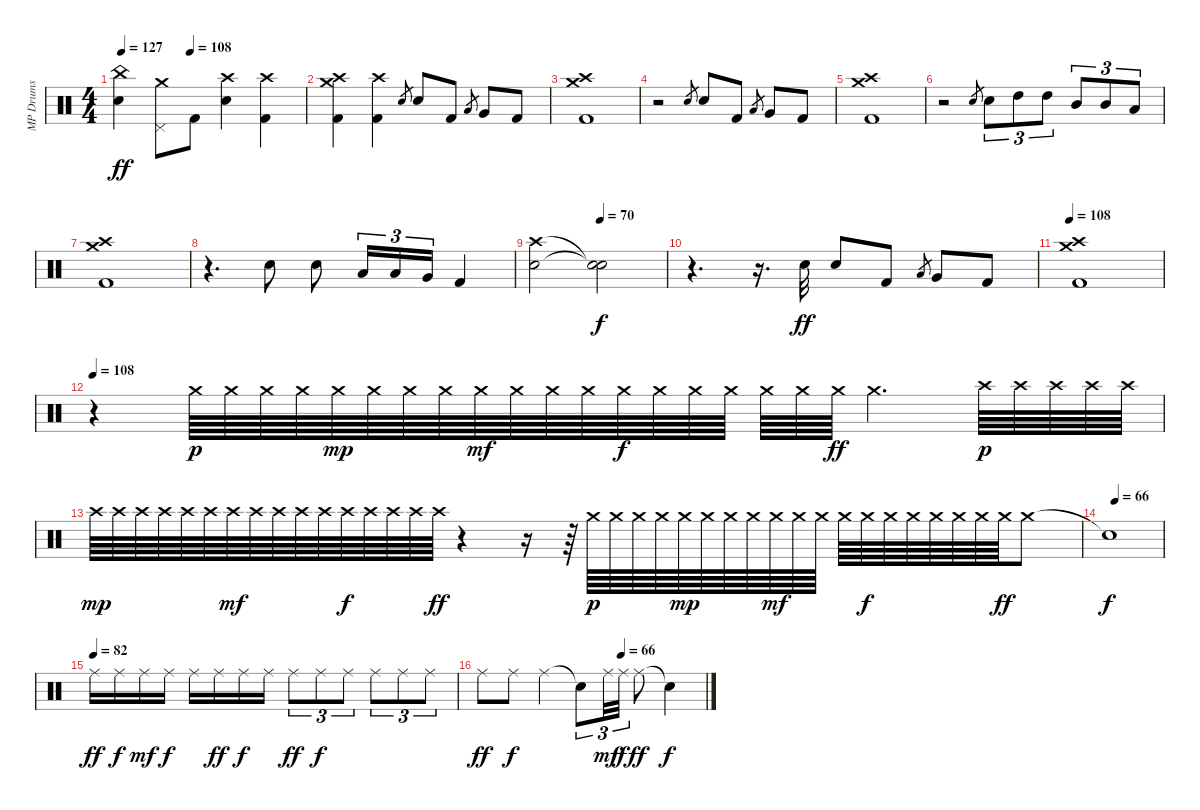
\track ("MP Drums" "MP Drums") {instrument percussion}
\staff {score}
\articulation defaults
\ts (4 4)
\tempo 127
\tempo (108 0.375)
\clef neutral
\ks c
("China (hit)" "Snare (hit) 2").4{dy ff} ("Crash medium (hit)" "Pedal Hi-Hat (hit)").8 "Kick (hit) 2".8 ("Crash high (hit)" "Snare (hit) 2").4 ("Crash high (hit)" "Kick (hit) 2").4 |
("Crash high (hit)" "Crash medium (hit)" "Kick (hit) 2").4 ("Crash high (hit)" "Kick (hit) 2").4 "Snare (hit) 2".8{gr} "Snare (hit) 2".8 "Kick (hit) 2".8 "Low Tom (hit)".8{gr} "Very Low Tom (hit)".8 "Kick (hit) 2".8 |
("Crash high (hit)" "Crash medium (hit)" "Kick (hit) 2").1 |
r.2 "Snare (hit) 2".8{gr} "Snare (hit) 2".8 "Kick (hit) 2".8 "Low Tom (hit)".8{gr} "Very Low Tom (hit)".8 "Kick (hit) 2".8 |
("Crash high (hit)" "Crash medium (hit)" "Kick (hit) 2").1 |
r.2 "Snare (hit) 2".8{gr} "Snare (hit) 2".8{tu (3 2)} "High Tom (hit)".8{tu (3 2)} "High Tom (hit)".8{tu (3 2)} "Mid Tom (hit)".8{tu (3 2)} "Mid Tom (hit)".8{tu (3 2)} "Low Tom (hit)".8{tu (3 2)} |
("Crash high (hit)" "Crash medium (hit)" "Kick (hit) 2").1 |
r.4{d} "Snare (hit) 2".8 "Snare (hit) 2".8 "Low Tom (hit)".16{tu (3 2)} "Low Tom (hit)".16{tu (3 2)} "Very Low Tom (hit)".16{tu (3 2)} "Kick (hit) 2".4 |
\tempo (70 0.5)
("Crash high (hit)" "Snare (hit) 2").2 ("Snare (hit)"{t} "Snare (hit)"{t}).2{dy f} |
r.4{d} r.16{d} "Snare (hit) 2".32{dy ff} "Snare (hit) 2".8 "Kick (hit) 2".8 "Low Tom (hit)".8{gr} "Very Low Tom (hit)".8 "Kick (hit) 2".8 |
\tempo 108
("Crash high (hit)" "Crash medium (hit)" "Kick (hit) 2").1 |
\tempo 108
r.4 "Crash medium (hit)".64{dy p} "Crash medium (hit)".64 "Crash medium (hit)".64 "Crash medium (hit)".64 "Crash medium (hit)".64{dy mp} "Crash medium (hit)".64 "Crash medium (hit)".64 "Crash medium (hit)".64 "Crash medium (hit)".64{dy mf} "Crash medium (hit)".64 "Crash medium (hit)".64 "Crash medium (hit)".64 "Crash medium (hit)".64{dy f} "Crash medium (hit)".64 "Crash medium (hit)".64 "Crash medium (hit)".64 "Crash medium (hit)".64 "Crash medium (hit)".64 "Crash medium (hit)".64{dy ff} "Crash medium (hit)".4{d} "Crash high (hit)".64{dy p} "Crash high (hit)".64 "Crash high (hit)".64 "Crash high (hit)".64 "Crash high (hit)".64 |
"Crash high (hit)".64{dy mp} "Crash high (hit)".64 "Crash high (hit)".64 "Crash high (hit)".64 "Crash high (hit)".64 "Crash high (hit)".64 "Crash high (hit)".64{dy mf} "Crash high (hit)".64 "Crash high (hit)".64 "Crash high (hit)".64 "Crash high (hit)".64 "Crash high (hit)".64{dy f} "Crash high (hit)".64 "Crash high (hit)".64 "Crash high (hit)".64 "Crash high (hit)".64{dy ff} r.4 r.16 r.64 "Crash medium (hit)".64{dy p} "Crash medium (hit)".64 "Crash medium (hit)".64 "Crash medium (hit)".64 "Crash medium (hit)".64{dy mp} "Crash medium (hit)".64 "Crash medium (hit)".64 "Crash medium (hit)".64 "Crash medium (hit)".64{dy mf} "Crash medium (hit)".64 "Crash medium (hit)".64 "Crash medium (hit)".64 "Crash medium (hit)".64{dy f} "Crash medium (hit)".64 "Crash medium (hit)".64 "Crash medium (hit)".64 "Crash medium (hit)".64 "Crash medium (hit)".64 "Crash medium (hit)".64{dy ff} "Crash medium (hit)".8 |
\tempo (66 0.125)
"Snare (hit)"{t}.1{dy f} |
\tempo (82)
"Ride (middle)".16{dy ff volume 11} "Ride (middle)".16{dy f} "Ride (middle)".16{dy mf} "Ride (middle)".16{dy f} "Ride (middle)".16 "Ride (middle)".16{dy ff} "Ride (middle)".16{dy f} "Ride (middle)".16 "Ride (middle)".8{tu (3 2) dy ff} "Ride (middle)".8{tu (3 2) dy f} "Ride (middle)".8{tu (3 2)} "Ride (middle)".8{tu (3 2)} "Ride (middle)".8{tu (3 2)} "Ride (middle)".8{tu (3 2)} |
\tempo (66 0.625)
"Ride (middle)".8{dy ff volume 9} "Ride (middle)".8{dy f} "Ride (middle)".4 "Snare (hit)"{t}.8{tu (3 2)} "Ride (middle)".32{tu (3 2) dy mf} "Ride (middle)".32{tu (3 2) dy f} "Ride (middle)".8{dy ff} "Snare (hit)"{t}.4{dy f}
